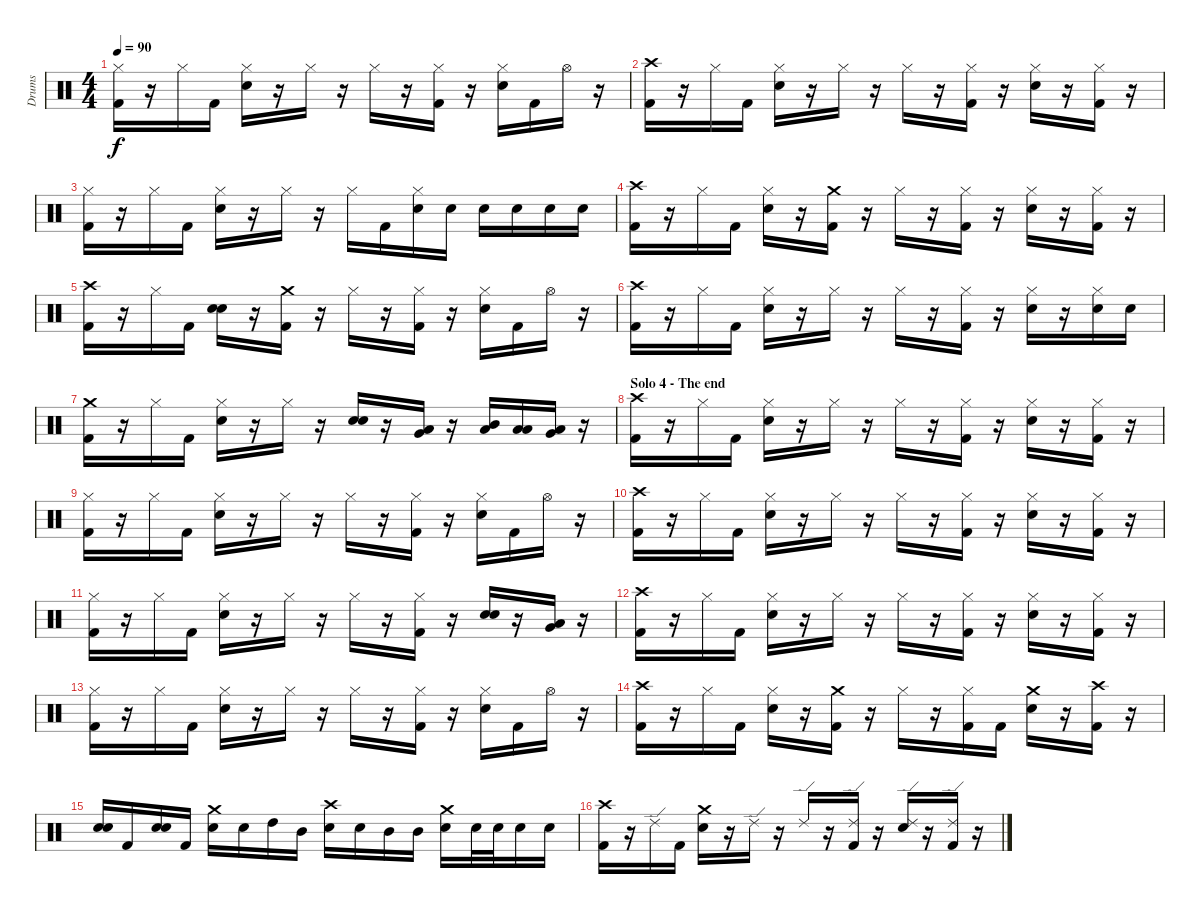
\track ("Drums" "Drums") {instrument percussion}
\staff {score}
\articulation defaults
\ts (4 4)
\tempo 90
\clef neutral
\ks c
("Hi-Hat (closed)" "Kick (hit) 2").16{dy f} r.16 "Hi-Hat (closed)".16 "Kick (hit) 2".16 ("Hi-Hat (closed)" "Electric Snare (hit)").16 r.16 "Hi-Hat (closed)".16 r.16 "Hi-Hat (closed)".16 r.16 ("Hi-Hat (closed)" "Kick (hit) 2").16 r.16 ("Hi-Hat (closed)" "Electric Snare (hit)").16 "Kick (hit) 2".16 "Hi-Hat (open)".16 r.16 |
("Crash high (hit)" "Kick (hit) 2").16 r.16 "Hi-Hat (closed)".16 "Kick (hit) 2".16 ("Hi-Hat (closed)" "Electric Snare (hit)").16 r.16 "Hi-Hat (closed)".16 r.16 "Hi-Hat (closed)".16 r.16 ("Hi-Hat (closed)" "Kick (hit) 2").16 r.16 ("Hi-Hat (closed)" "Electric Snare (hit)").16 r.16 ("Hi-Hat (closed)" "Kick (hit) 2").16 r.16 |
("Hi-Hat (closed)" "Kick (hit) 2").16 r.16 "Hi-Hat (closed)".16 "Kick (hit) 2".16 ("Hi-Hat (closed)" "Electric Snare (hit)").16 r.16 "Hi-Hat (closed)".16 r.16 "Hi-Hat (closed)".16 "Kick (hit) 2".16 ("Hi-Hat (closed)" "Electric Snare (hit)").16 "Electric Snare (hit)".16 "Electric Snare (hit)".16 "Electric Snare (hit)".16 "Electric Snare (hit)".16 "Electric Snare (hit)".16 |
("Crash high (hit)" "Kick (hit) 2").16 r.16 "Hi-Hat (closed)".16 "Kick (hit) 2".16 ("Hi-Hat (closed)" "Electric Snare (hit)").16 r.16 ("Crash medium (hit)" "Kick (hit) 2").16 r.16 "Hi-Hat (closed)".16 r.16 ("Hi-Hat (closed)" "Kick (hit) 2").16 r.16 ("Hi-Hat (closed)" "Electric Snare (hit)").16 r.16 ("Hi-Hat (closed)" "Kick (hit) 2").16 r.16 |
("Crash high (hit)" "Kick (hit) 2").16 r.16 "Hi-Hat (closed)".16 "Kick (hit) 2".16 ("Electric Snare (hit)" "Electric Snare (hit)").16{bd 120} r.16 ("Crash medium (hit)" "Kick (hit) 2").16 r.16 "Hi-Hat (closed)".16 r.16 ("Hi-Hat (closed)" "Kick (hit) 2").16 r.16 ("Hi-Hat (closed)" "Electric Snare (hit)").16 "Kick (hit) 2".16 "Hi-Hat (open)".16 r.16 |
("Crash high (hit)" "Kick (hit) 2").16 r.16 "Hi-Hat (closed)".16 "Kick (hit) 2".16 ("Hi-Hat (closed)" "Electric Snare (hit)").16 r.16 "Hi-Hat (closed)".16 r.16 "Hi-Hat (closed)".16 r.16 ("Hi-Hat (closed)" "Kick (hit) 2").16 r.16 ("Hi-Hat (closed)" "Electric Snare (hit)").16 r.16 ("Hi-Hat (closed)" "Electric Snare (hit)").16 "Electric Snare (hit)".16 |
("Crash medium (hit)" "Kick (hit) 2").16 r.16 "Hi-Hat (closed)".16 "Kick (hit) 2".16 ("Hi-Hat (closed)" "Electric Snare (hit)").16 r.16 "Hi-Hat (closed)".16 r.16 ("Electric Snare (hit)" "Electric Snare (hit)").16{bd 120} r.16 ("Very Low Tom (hit)" "Low Tom (hit)").16{bd 120} r.16 ("Low Tom (hit)" "Mid Tom (hit)").16{bd 60} ("Low Tom (hit)" "Low Tom (hit)").16{bd 60} ("Very Low Tom (hit)" "Low Tom (hit)").16{bd 60} r.16 |
\section ("" "Solo 4 - The end")
("Crash high (hit)" "Kick (hit) 2").16 r.16 "Hi-Hat (closed)".16 "Kick (hit) 2".16 ("Hi-Hat (closed)" "Electric Snare (hit)").16 r.16 "Hi-Hat (closed)".16 r.16 "Hi-Hat (closed)".16 r.16 ("Hi-Hat (closed)" "Kick (hit) 2").16 r.16 ("Hi-Hat (closed)" "Electric Snare (hit)").16 r.16 ("Hi-Hat (closed)" "Kick (hit) 2").16 r.16 |
("Hi-Hat (closed)" "Kick (hit) 2").16 r.16 "Hi-Hat (closed)".16 "Kick (hit) 2".16 ("Hi-Hat (closed)" "Electric Snare (hit)").16 r.16 "Hi-Hat (closed)".16 r.16 "Hi-Hat (closed)".16 r.16 ("Hi-Hat (closed)" "Kick (hit) 2").16 r.16 ("Hi-Hat (closed)" "Electric Snare (hit)").16 "Kick (hit) 2".16 "Hi-Hat (open)".16 r.16 |
("Crash high (hit)" "Kick (hit) 2").16 r.16 "Hi-Hat (closed)".16 "Kick (hit) 2".16 ("Hi-Hat (closed)" "Electric Snare (hit)").16 r.16 "Hi-Hat (closed)".16 r.16 "Hi-Hat (closed)".16 r.16 ("Hi-Hat (closed)" "Kick (hit) 2").16 r.16 ("Hi-Hat (closed)" "Electric Snare (hit)").16 r.16 ("Hi-Hat (closed)" "Kick (hit) 2").16 r.16 |
("Hi-Hat (closed)" "Kick (hit) 2").16 r.16 "Hi-Hat (closed)".16 "Kick (hit) 2".16 ("Hi-Hat (closed)" "Electric Snare (hit)").16 r.16 "Hi-Hat (closed)".16 r.16 "Hi-Hat (closed)".16 r.16 ("Hi-Hat (closed)" "Kick (hit) 2").16 r.16 ("Electric Snare (hit)" "Electric Snare (hit)").16{bd 120} r.16 ("Very Low Tom (hit)" "Low Tom (hit)").16{bd 120} r.16 |
("Crash high (hit)" "Kick (hit) 2").16 r.16 "Hi-Hat (closed)".16 "Kick (hit) 2".16 ("Hi-Hat (closed)" "Electric Snare (hit)").16 r.16 "Hi-Hat (closed)".16 r.16 "Hi-Hat (closed)".16 r.16 ("Hi-Hat (closed)" "Kick (hit) 2").16 r.16 ("Hi-Hat (closed)" "Electric Snare (hit)").16 r.16 ("Hi-Hat (closed)" "Kick (hit) 2").16 r.16 |
("Hi-Hat (closed)" "Kick (hit) 2").16 r.16 "Hi-Hat (closed)".16 "Kick (hit) 2".16 ("Hi-Hat (closed)" "Electric Snare (hit)").16 r.16 "Hi-Hat (closed)".16 r.16 "Hi-Hat (closed)".16 r.16 ("Hi-Hat (closed)" "Kick (hit) 2").16 r.16 ("Hi-Hat (closed)" "Electric Snare (hit)").16 "Kick (hit) 2".16 "Hi-Hat (open)".16 r.16 |
("Crash high (hit)" "Kick (hit) 2").16 r.16 "Hi-Hat (closed)".16 "Kick (hit) 2".16 ("Hi-Hat (closed)" "Electric Snare (hit)").16 r.16 ("Crash medium (hit)" "Kick (hit) 2").16 r.16 "Hi-Hat (closed)".16 r.16 ("Hi-Hat (closed)" "Kick (hit) 2").16 "Kick (hit) 2".16 ("Crash medium (hit)" "Electric Snare (hit)").16 r.16 ("Crash high (hit)" "Kick (hit) 2").16 r.16 |
("Electric Snare (hit)" "Electric Snare (hit)").16{bd 60} "Kick (hit) 2".16 ("Electric Snare (hit)" "Electric Snare (hit)").16{bd 60} "Kick (hit) 2".16 ("Crash medium (hit)" "Electric Snare (hit)").16 "Electric Snare (hit)".16 "High Tom (hit)".16 "Mid Tom (hit)".16 ("Crash high (hit)" "Electric Snare (hit)").16 "Electric Snare (hit)".16 "Mid Tom (hit)".16 "Mid Tom (hit)".16 ("Crash medium (hit)" "Electric Snare (hit)").16 "Electric Snare (hit)".32 "Electric Snare (hit)".32 "Electric Snare (hit)".16 "Electric Snare (hit)".16 |
("Crash high (hit)" "Kick (hit) 2").16{volume 8} r.16 "Ride (edge) 2".16 "Kick (hit) 2".16 ("Crash medium (hit)" "Electric Snare (hit)").16 r.16 "Ride (edge) 2".16 r.16 "Ride (edge) 2".16 r.16 ("Ride (edge) 2" "Kick (hit) 2").16 r.16 ("Ride (edge) 2" "Electric Snare (hit)").16 r.16 ("Ride (edge) 2" "Kick (hit) 2").16 r.16
